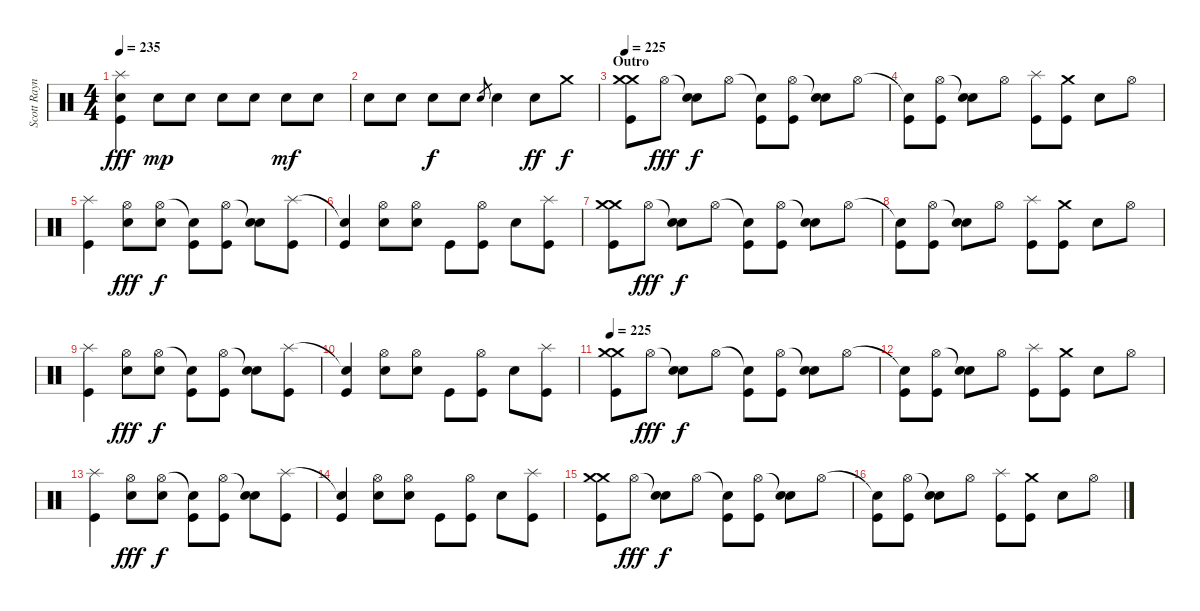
\track ("Scott Raynor - Drums/Bateria" "Scott Rayn") {instrument percussion}
\staff {score}
\articulation defaults
\ts (4 4)
\tempo 235
\clef neutral
\ks c
("Splash (hit)" "Electric Snare (hit)" "Kick (hit)").4{dy fff} "Electric Snare (hit)".8{dy mp} "Electric Snare (hit)".8 "Electric Snare (hit)".8 "Electric Snare (hit)".8 "Electric Snare (hit)".8{dy mf} "Electric Snare (hit)".8 |
"Electric Snare (hit)".8 "Electric Snare (hit)".8 "Electric Snare (hit)".8{dy f} "Electric Snare (hit)".8 "Electric Snare (hit)".8{gr} "Electric Snare (hit)".4 "Electric Snare (hit)".8{dy ff} "Crash medium (hit)".8{dy f} |
\section ("" "Outro")
\tempo 225
("Crash medium (hit)" "Crash medium (hit)" "Kick (hit)").8 "Hi-Hat (open)".8{dy fff} ("Snare (hit)"{t} "Electric Snare (hit)").8{dy f} "Hi-Hat (open)".8 ("Snare (hit)"{t} "Kick (hit)").8 ("Hi-Hat (open)" "Kick (hit)").8 ("Snare (hit)"{t} "Electric Snare (hit)").8 "Hi-Hat (open)".8 |
("Snare (hit)"{t} "Kick (hit)").8 ("Hi-Hat (open)" "Kick (hit)").8 ("Snare (hit)"{t} "Electric Snare (hit)").8 "Hi-Hat (open)".8 ("Splash (hit)" "Kick (hit)").8 ("Crash medium (hit)" "Kick (hit)").8 "Electric Snare (hit)".8 "Hi-Hat (open)".8 |
("Splash (hit)" "Kick (hit)").4 ("Hi-Hat (open)" "Electric Snare (hit)").8{dy fff} ("Hi-Hat (open)" "Electric Snare (hit)").8{dy f} ("Snare (hit)"{t} "Kick (hit)").8 ("Hi-Hat (open)" "Kick (hit)").8 ("Snare (hit)"{t} "Electric Snare (hit)").8 ("Splash (hit)" "Kick (hit)").8 |
("Snare (hit)"{t} "Kick (hit)").4 ("Hi-Hat (open)" "Electric Snare (hit)").8 ("Hi-Hat (open)" "Electric Snare (hit)").8 "Kick (hit)".8 ("Hi-Hat (open)" "Kick (hit)").8 "Electric Snare (hit)".8 ("Splash (hit)" "Kick (hit)").8 |
("Crash medium (hit)" "Crash medium (hit)" "Kick (hit)").8 "Hi-Hat (open)".8{dy fff} ("Snare (hit)"{t} "Electric Snare (hit)").8{dy f} "Hi-Hat (open)".8 ("Snare (hit)"{t} "Kick (hit)").8 ("Hi-Hat (open)" "Kick (hit)").8 ("Snare (hit)"{t} "Electric Snare (hit)").8 "Hi-Hat (open)".8 |
("Snare (hit)"{t} "Kick (hit)").8 ("Hi-Hat (open)" "Kick (hit)").8 ("Snare (hit)"{t} "Electric Snare (hit)").8 "Hi-Hat (open)".8 ("Splash (hit)" "Kick (hit)").8 ("Crash medium (hit)" "Kick (hit)").8 "Electric Snare (hit)".8 "Hi-Hat (open)".8 |
("Splash (hit)" "Kick (hit)").4 ("Hi-Hat (open)" "Electric Snare (hit)").8{dy fff} ("Hi-Hat (open)" "Electric Snare (hit)").8{dy f} ("Snare (hit)"{t} "Kick (hit)").8 ("Hi-Hat (open)" "Kick (hit)").8 ("Snare (hit)"{t} "Electric Snare (hit)").8 ("Splash (hit)" "Kick (hit)").8 |
("Snare (hit)"{t} "Kick (hit)").4 ("Hi-Hat (open)" "Electric Snare (hit)").8 ("Hi-Hat (open)" "Electric Snare (hit)").8 "Kick (hit)".8 ("Hi-Hat (open)" "Kick (hit)").8 "Electric Snare (hit)".8 ("Splash (hit)" "Kick (hit)").8 |
\tempo 225
("Crash medium (hit)" "Crash medium (hit)" "Kick (hit)").8 "Hi-Hat (open)".8{dy fff} ("Snare (hit)"{t} "Electric Snare (hit)").8{dy f} "Hi-Hat (open)".8 ("Snare (hit)"{t} "Kick (hit)").8 ("Hi-Hat (open)" "Kick (hit)").8 ("Snare (hit)"{t} "Electric Snare (hit)").8 "Hi-Hat (open)".8 |
("Snare (hit)"{t} "Kick (hit)").8 ("Hi-Hat (open)" "Kick (hit)").8 ("Snare (hit)"{t} "Electric Snare (hit)").8 "Hi-Hat (open)".8 ("Splash (hit)" "Kick (hit)").8 ("Crash medium (hit)" "Kick (hit)").8 "Electric Snare (hit)".8 "Hi-Hat (open)".8 |
("Splash (hit)" "Kick (hit)").4 ("Hi-Hat (open)" "Electric Snare (hit)").8{dy fff} ("Hi-Hat (open)" "Electric Snare (hit)").8{dy f} ("Snare (hit)"{t} "Kick (hit)").8 ("Hi-Hat (open)" "Kick (hit)").8 ("Snare (hit)"{t} "Electric Snare (hit)").8 ("Splash (hit)" "Kick (hit)").8 |
("Snare (hit)"{t} "Kick (hit)").4 ("Hi-Hat (open)" "Electric Snare (hit)").8 ("Hi-Hat (open)" "Electric Snare (hit)").8 "Kick (hit)".8 ("Hi-Hat (open)" "Kick (hit)").8 "Electric Snare (hit)".8 ("Splash (hit)" "Kick (hit)").8 |
("Crash medium (hit)" "Crash medium (hit)" "Kick (hit)").8 "Hi-Hat (open)".8{dy fff} ("Snare (hit)"{t} "Electric Snare (hit)").8{dy f} "Hi-Hat (open)".8 ("Snare (hit)"{t} "Kick (hit)").8 ("Hi-Hat (open)" "Kick (hit)").8 ("Snare (hit)"{t} "Electric Snare (hit)").8 "Hi-Hat (open)".8 |
("Snare (hit)"{t} "Kick (hit)").8 ("Hi-Hat (open)" "Kick (hit)").8 ("Snare (hit)"{t} "Electric Snare (hit)").8 "Hi-Hat (open)".8 ("Splash (hit)" "Kick (hit)").8 ("Crash medium (hit)" "Kick (hit)").8 "Electric Snare (hit)".8 "Hi-Hat (open)".8
